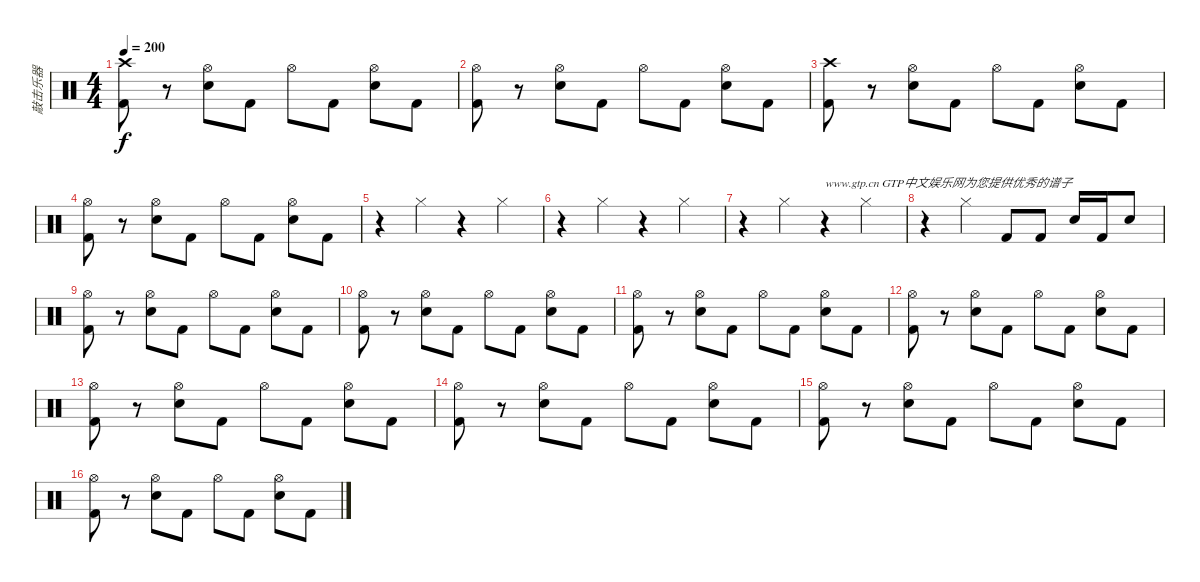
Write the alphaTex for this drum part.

\track ("敲击乐器" "敲击乐器") {instrument percussion}
\staff {score}
\articulation defaults
\ts (4 4)
\tempo 200
\clef neutral
\ks c
("Crash high (hit)" "Kick (hit) 2").8{dy f} r.8 ("Hi-Hat (open)" "Electric Snare (hit)").8 "Kick (hit) 2".8 "Hi-Hat (open)".8 "Kick (hit) 2".8 ("Hi-Hat (open)" "Electric Snare (hit)").8 "Kick (hit) 2".8 |
("Hi-Hat (open)" "Kick (hit) 2").8 r.8 ("Hi-Hat (open)" "Electric Snare (hit)").8 "Kick (hit) 2".8 "Hi-Hat (open)".8 "Kick (hit) 2".8 ("Hi-Hat (open)" "Electric Snare (hit)").8 "Kick (hit) 2".8 |
("Crash high (hit)" "Kick (hit) 2").8 r.8 ("Hi-Hat (open)" "Electric Snare (hit)").8 "Kick (hit) 2".8 "Hi-Hat (open)".8 "Kick (hit) 2".8 ("Hi-Hat (open)" "Electric Snare (hit)").8 "Kick (hit) 2".8 |
("Hi-Hat (open)" "Kick (hit) 2").8 r.8 ("Hi-Hat (open)" "Electric Snare (hit)").8 "Kick (hit) 2".8 "Hi-Hat (open)".8 "Kick (hit) 2".8 ("Hi-Hat (open)" "Electric Snare (hit)").8 "Kick (hit) 2".8 |
r.4 "Hi-Hat (closed)".4 r.4 "Hi-Hat (closed)".4 |
r.4 "Hi-Hat (closed)".4 r.4 "Hi-Hat (closed)".4 |
r.4 "Hi-Hat (closed)".4 r.4{txt "www.gtp.cn GTP中文娱乐网为您提供优秀的谱子"} "Hi-Hat (closed)".4 |
r.4 "Hi-Hat (closed)".4 "Kick (hit) 2".8 "Kick (hit) 2".8 "Electric Snare (hit)".16 "Kick (hit) 2".16 "Electric Snare (hit)".8 |
("Hi-Hat (open)" "Kick (hit) 2").8 r.8 ("Hi-Hat (open)" "Electric Snare (hit)").8 "Kick (hit) 2".8 "Hi-Hat (open)".8 "Kick (hit) 2".8 ("Hi-Hat (open)" "Electric Snare (hit)").8 "Kick (hit) 2".8 |
("Hi-Hat (open)" "Kick (hit) 2").8 r.8 ("Hi-Hat (open)" "Electric Snare (hit)").8 "Kick (hit) 2".8 "Hi-Hat (open)".8 "Kick (hit) 2".8 ("Hi-Hat (open)" "Electric Snare (hit)").8 "Kick (hit) 2".8 |
("Hi-Hat (open)" "Kick (hit) 2").8 r.8 ("Hi-Hat (open)" "Electric Snare (hit)").8 "Kick (hit) 2".8 "Hi-Hat (open)".8 "Kick (hit) 2".8 ("Hi-Hat (open)" "Electric Snare (hit)").8 "Kick (hit) 2".8 |
("Hi-Hat (open)" "Kick (hit) 2").8 r.8 ("Hi-Hat (open)" "Electric Snare (hit)").8 "Kick (hit) 2".8 "Hi-Hat (open)".8 "Kick (hit) 2".8 ("Hi-Hat (open)" "Electric Snare (hit)").8 "Kick (hit) 2".8 |
("Hi-Hat (open)" "Kick (hit) 2").8 r.8 ("Hi-Hat (open)" "Electric Snare (hit)").8 "Kick (hit) 2".8 "Hi-Hat (open)".8 "Kick (hit) 2".8 ("Hi-Hat (open)" "Electric Snare (hit)").8 "Kick (hit) 2".8 |
("Hi-Hat (open)" "Kick (hit) 2").8 r.8 ("Hi-Hat (open)" "Electric Snare (hit)").8 "Kick (hit) 2".8 "Hi-Hat (open)".8 "Kick (hit) 2".8 ("Hi-Hat (open)" "Electric Snare (hit)").8 "Kick (hit) 2".8 |
("Hi-Hat (open)" "Kick (hit) 2").8 r.8 ("Hi-Hat (open)" "Electric Snare (hit)").8 "Kick (hit) 2".8 "Hi-Hat (open)".8 "Kick (hit) 2".8 ("Hi-Hat (open)" "Electric Snare (hit)").8 "Kick (hit) 2".8 |
("Hi-Hat (open)" "Kick (hit) 2").8 r.8 ("Hi-Hat (open)" "Electric Snare (hit)").8 "Kick (hit) 2".8 "Hi-Hat (open)".8 "Kick (hit) 2".8 ("Hi-Hat (open)" "Electric Snare (hit)").8 "Kick (hit) 2".8
